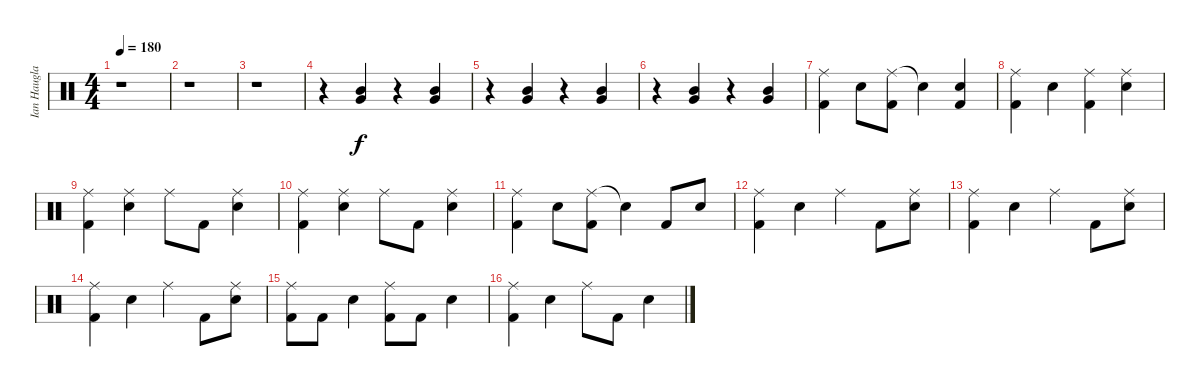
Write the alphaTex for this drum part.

\track ("Ian Haugland drums" "Ian Haugla") {instrument percussion}
\staff {score}
\articulation defaults
\ts (4 4)
\tempo 180
\clef neutral
\ks c
r.1{dy f} |
r.1 |
r.1 |
r.4 ("Mid Tom (hit)" "Very Low Tom (hit)").4 r.4 ("Mid Tom (hit)" "Very Low Tom (hit)").4 |
r.4 ("Mid Tom (hit)" "Very Low Tom (hit)").4 r.4 ("Mid Tom (hit)" "Very Low Tom (hit)").4 |
r.4 ("Mid Tom (hit)" "Very Low Tom (hit)").4 r.4 ("Mid Tom (hit)" "Very Low Tom (hit)").4 |
("Ride (middle)" "Kick (hit) 2").4 "Snare (hit) 2".8 ("Ride (middle)" "Kick (hit) 2").8 "Snare (hit)"{t}.4 ("Snare (hit) 2" "Kick (hit) 2").4 |
("Ride (middle)" "Kick (hit) 2").4 "Snare (hit) 2".4 ("Ride (middle)" "Kick (hit) 2").4 ("Snare (hit) 2" "Ride (middle)").4 |
("Ride (middle)" "Kick (hit) 2").4 ("Snare (hit) 2" "Ride (middle)").4 "Ride (middle)".8 "Kick (hit) 2".8 ("Ride (middle)" "Snare (hit) 2").4 |
("Ride (middle)" "Kick (hit) 2").4 ("Snare (hit) 2" "Ride (middle)").4 "Ride (middle)".8 "Kick (hit) 2".8 ("Ride (middle)" "Snare (hit) 2").4 |
("Ride (middle)" "Kick (hit) 2").4 "Snare (hit) 2".8 ("Ride (middle)" "Kick (hit) 2").8 "Snare (hit)"{t}.4 "Kick (hit) 2".8 "Snare (hit) 2".8 |
("Ride (middle)" "Kick (hit) 2").4 "Snare (hit) 2".4 "Ride (middle)".4 "Kick (hit) 2".8 ("Ride (middle)" "Snare (hit) 2").8 |
("Ride (middle)" "Kick (hit) 2").4 "Snare (hit) 2".4 "Ride (middle)".4 "Kick (hit) 2".8 ("Ride (middle)" "Snare (hit) 2").8 |
("Ride (middle)" "Kick (hit) 2").4 "Snare (hit) 2".4 "Ride (middle)".4 "Kick (hit) 2".8 ("Ride (middle)" "Snare (hit) 2").8 |
("Ride (middle)" "Kick (hit) 2").8 "Kick (hit) 2".8 "Snare (hit) 2".4 ("Ride (middle)" "Kick (hit) 2").8 "Kick (hit) 2".8 "Snare (hit) 2".4 |
("Ride (middle)" "Kick (hit) 2").4 "Snare (hit) 2".4 "Ride (middle)".8 "Kick (hit) 2".8 "Snare (hit) 2".4
